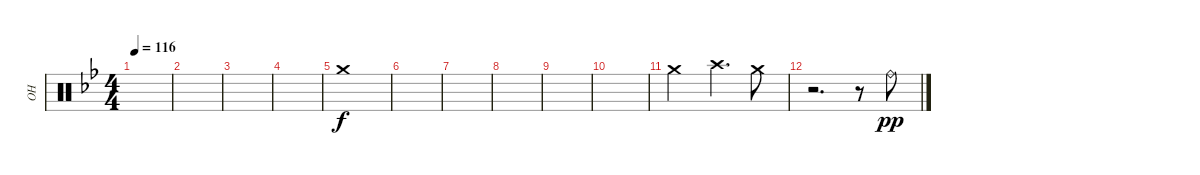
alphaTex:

\track ("OH" "OH") {instrument percussion}
\staff {score}
\articulation defaults
\ts (4 4)
\tempo 116
\clef neutral
\ks bb
|
|
|
|
"Crash medium (hit)".1 |
|
|
|
|
|
"Crash medium (hit)".2 "Crash high (hit)".4{d} "Crash medium (hit)".8 |
r.2{d} r.8 "Ride (bell)".8{dy pp}
